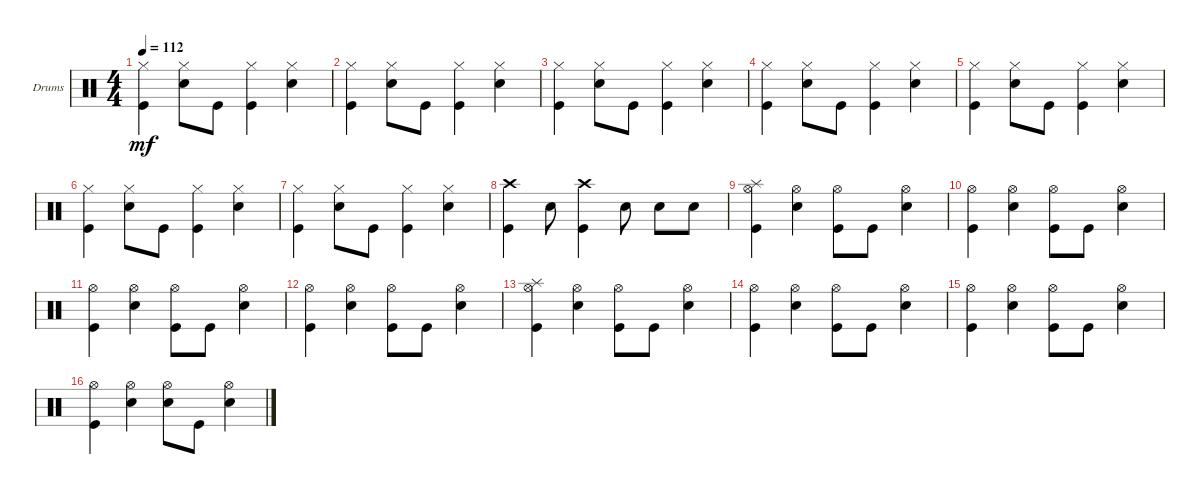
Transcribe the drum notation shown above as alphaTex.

\defaultSystemsLayout 4
\bracketExtendMode groupsimilarinstruments
\firstSystemTrackNameOrientation horizontal
\otherSystemsTrackNameOrientation horizontal
\track ("Drumkit" "Drums") {instrument percussion}
\staff {score}
\articulation defaults
\ts (4 4)
\tempo 112
\clef neutral
\ks c
("Kick (hit)" "Hi-Hat (closed)").4{dy mf} ("Snare (hit) 2" "Hi-Hat (closed)").8 "Kick (hit)".8 ("Kick (hit)" "Hi-Hat (closed)").4 ("Snare (hit) 2" "Hi-Hat (closed)").4 |
("Kick (hit)" "Hi-Hat (closed)").4 ("Snare (hit) 2" "Hi-Hat (closed)").8 "Kick (hit)".8 ("Kick (hit)" "Hi-Hat (closed)").4 ("Snare (hit) 2" "Hi-Hat (closed)").4 |
("Kick (hit)" "Hi-Hat (closed)").4 ("Snare (hit) 2" "Hi-Hat (closed)").8 "Kick (hit)".8 ("Kick (hit)" "Hi-Hat (closed)").4 ("Snare (hit) 2" "Hi-Hat (closed)").4 |
("Kick (hit)" "Hi-Hat (closed)").4 ("Snare (hit) 2" "Hi-Hat (closed)").8 "Kick (hit)".8 ("Kick (hit)" "Hi-Hat (closed)").4 ("Snare (hit) 2" "Hi-Hat (closed)").4 |
("Kick (hit)" "Hi-Hat (closed)").4 ("Snare (hit) 2" "Hi-Hat (closed)").8 "Kick (hit)".8 ("Kick (hit)" "Hi-Hat (closed)").4 ("Snare (hit) 2" "Hi-Hat (closed)").4 |
("Kick (hit)" "Hi-Hat (closed)").4 ("Snare (hit) 2" "Hi-Hat (closed)").8 "Kick (hit)".8 ("Kick (hit)" "Hi-Hat (closed)").4 ("Snare (hit) 2" "Hi-Hat (closed)").4 |
("Kick (hit)" "Hi-Hat (closed)").4 ("Snare (hit) 2" "Hi-Hat (closed)").8 "Kick (hit)".8 ("Kick (hit)" "Hi-Hat (closed)").4 ("Snare (hit) 2" "Hi-Hat (closed)").4 |
("Kick (hit)" "Crash high (hit)").4 "Snare (hit) 2".8 ("Kick (hit)" "Crash high (hit)").4 "Snare (hit) 2".8 "Snare (hit) 2".8 "Snare (hit) 2".8 |
("Kick (hit)" "Hi-Hat (open)" "Splash (hit)").4 ("Hi-Hat (open)" "Snare (hit) 2").4 ("Hi-Hat (open)" "Kick (hit)").8 "Kick (hit)".8 ("Hi-Hat (open)" "Snare (hit) 2").4 |
("Kick (hit)" "Hi-Hat (open)").4 ("Hi-Hat (open)" "Snare (hit) 2").4 ("Hi-Hat (open)" "Kick (hit)").8 "Kick (hit)".8 ("Hi-Hat (open)" "Snare (hit) 2").4 |
("Kick (hit)" "Hi-Hat (open)").4 ("Hi-Hat (open)" "Snare (hit) 2").4 ("Hi-Hat (open)" "Kick (hit)").8 "Kick (hit)".8 ("Hi-Hat (open)" "Snare (hit) 2").4 |
("Kick (hit)" "Hi-Hat (open)").4 ("Hi-Hat (open)" "Snare (hit) 2").4 ("Hi-Hat (open)" "Kick (hit)").8 "Kick (hit)".8 ("Hi-Hat (open)" "Snare (hit) 2").4 |
("Kick (hit)" "Hi-Hat (open)" "Splash (hit)").4 ("Hi-Hat (open)" "Snare (hit) 2").4 ("Hi-Hat (open)" "Kick (hit)").8 "Kick (hit)".8 ("Hi-Hat (open)" "Snare (hit) 2").4 |
("Kick (hit)" "Hi-Hat (open)").4 ("Hi-Hat (open)" "Snare (hit) 2").4 ("Hi-Hat (open)" "Kick (hit)").8 "Kick (hit)".8 ("Hi-Hat (open)" "Snare (hit) 2").4 |
("Kick (hit)" "Hi-Hat (open)").4 ("Hi-Hat (open)" "Snare (hit) 2").4 ("Hi-Hat (open)" "Kick (hit)").8 "Kick (hit)".8 ("Hi-Hat (open)" "Snare (hit) 2").4 |
("Kick (hit)" "Hi-Hat (open)").4 ("Hi-Hat (open)" "Snare (hit) 2").4 ("Hi-Hat (open)" "Snare (hit) 2").8 "Kick (hit)".8 ("Hi-Hat (open)" "Snare (hit) 2").4
